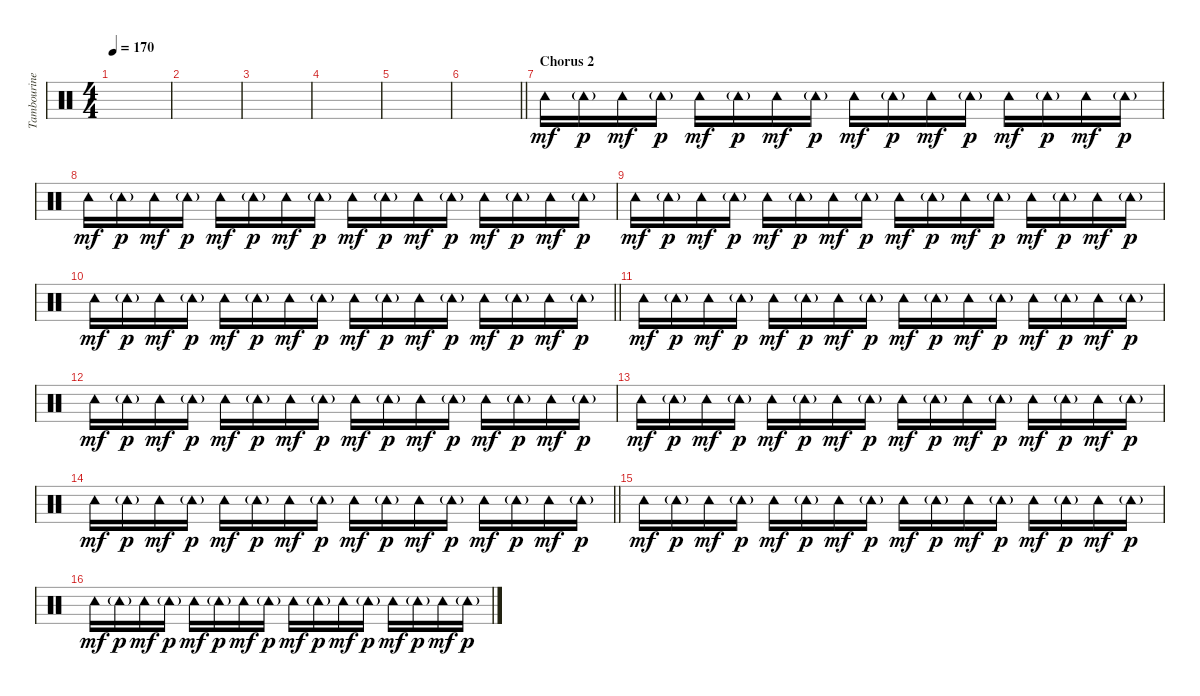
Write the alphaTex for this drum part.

\track ("Tambourine" "Tambourine") {instrument percussion}
\staff {score}
\articulation defaults
\ts (4 4)
\tempo 170
\clef neutral
\ks c
|
|
|
|
|
\barLineRight lightlight
|
\section ("" "Chorus 2")
"Tambourine (hit)".16{dy mf} "Tambourine (hit)"{g}.16{dy p} "Tambourine (hit)".16{dy mf} "Tambourine (hit)"{g}.16{dy p} "Tambourine (hit)".16{dy mf} "Tambourine (hit)"{g}.16{dy p} "Tambourine (hit)".16{dy mf} "Tambourine (hit)"{g}.16{dy p} "Tambourine (hit)".16{dy mf} "Tambourine (hit)"{g}.16{dy p} "Tambourine (hit)".16{dy mf} "Tambourine (hit)"{g}.16{dy p} "Tambourine (hit)".16{dy mf} "Tambourine (hit)"{g}.16{dy p} "Tambourine (hit)".16{dy mf} "Tambourine (hit)"{g}.16{dy p} |
"Tambourine (hit)".16{dy mf} "Tambourine (hit)"{g}.16{dy p} "Tambourine (hit)".16{dy mf} "Tambourine (hit)"{g}.16{dy p} "Tambourine (hit)".16{dy mf} "Tambourine (hit)"{g}.16{dy p} "Tambourine (hit)".16{dy mf} "Tambourine (hit)"{g}.16{dy p} "Tambourine (hit)".16{dy mf} "Tambourine (hit)"{g}.16{dy p} "Tambourine (hit)".16{dy mf} "Tambourine (hit)"{g}.16{dy p} "Tambourine (hit)".16{dy mf} "Tambourine (hit)"{g}.16{dy p} "Tambourine (hit)".16{dy mf} "Tambourine (hit)"{g}.16{dy p} |
"Tambourine (hit)".16{dy mf} "Tambourine (hit)"{g}.16{dy p} "Tambourine (hit)".16{dy mf} "Tambourine (hit)"{g}.16{dy p} "Tambourine (hit)".16{dy mf} "Tambourine (hit)"{g}.16{dy p} "Tambourine (hit)".16{dy mf} "Tambourine (hit)"{g}.16{dy p} "Tambourine (hit)".16{dy mf} "Tambourine (hit)"{g}.16{dy p} "Tambourine (hit)".16{dy mf} "Tambourine (hit)"{g}.16{dy p} "Tambourine (hit)".16{dy mf} "Tambourine (hit)"{g}.16{dy p} "Tambourine (hit)".16{dy mf} "Tambourine (hit)"{g}.16{dy p} |
\barLineRight lightlight "Tambourine (hit)".16{dy mf} "Tambourine (hit)"{g}.16{dy p} "Tambourine (hit)".16{dy mf} "Tambourine (hit)"{g}.16{dy p} "Tambourine (hit)".16{dy mf} "Tambourine (hit)"{g}.16{dy p} "Tambourine (hit)".16{dy mf} "Tambourine (hit)"{g}.16{dy p} "Tambourine (hit)".16{dy mf} "Tambourine (hit)"{g}.16{dy p} "Tambourine (hit)".16{dy mf} "Tambourine (hit)"{g}.16{dy p} "Tambourine (hit)".16{dy mf} "Tambourine (hit)"{g}.16{dy p} "Tambourine (hit)".16{dy mf} "Tambourine (hit)"{g}.16{dy p}
|
"Tambourine (hit)".16{dy mf} "Tambourine (hit)"{g}.16{dy p} "Tambourine (hit)".16{dy mf} "Tambourine (hit)"{g}.16{dy p} "Tambourine (hit)".16{dy mf} "Tambourine (hit)"{g}.16{dy p} "Tambourine (hit)".16{dy mf} "Tambourine (hit)"{g}.16{dy p} "Tambourine (hit)".16{dy mf} "Tambourine (hit)"{g}.16{dy p} "Tambourine (hit)".16{dy mf} "Tambourine (hit)"{g}.16{dy p} "Tambourine (hit)".16{dy mf} "Tambourine (hit)"{g}.16{dy p} "Tambourine (hit)".16{dy mf} "Tambourine (hit)"{g}.16{dy p} |
"Tambourine (hit)".16{dy mf} "Tambourine (hit)"{g}.16{dy p} "Tambourine (hit)".16{dy mf} "Tambourine (hit)"{g}.16{dy p} "Tambourine (hit)".16{dy mf} "Tambourine (hit)"{g}.16{dy p} "Tambourine (hit)".16{dy mf} "Tambourine (hit)"{g}.16{dy p} "Tambourine (hit)".16{dy mf} "Tambourine (hit)"{g}.16{dy p} "Tambourine (hit)".16{dy mf} "Tambourine (hit)"{g}.16{dy p} "Tambourine (hit)".16{dy mf} "Tambourine (hit)"{g}.16{dy p} "Tambourine (hit)".16{dy mf} "Tambourine (hit)"{g}.16{dy p} |
"Tambourine (hit)".16{dy mf} "Tambourine (hit)"{g}.16{dy p} "Tambourine (hit)".16{dy mf} "Tambourine (hit)"{g}.16{dy p} "Tambourine (hit)".16{dy mf} "Tambourine (hit)"{g}.16{dy p} "Tambourine (hit)".16{dy mf} "Tambourine (hit)"{g}.16{dy p} "Tambourine (hit)".16{dy mf} "Tambourine (hit)"{g}.16{dy p} "Tambourine (hit)".16{dy mf} "Tambourine (hit)"{g}.16{dy p} "Tambourine (hit)".16{dy mf} "Tambourine (hit)"{g}.16{dy p} "Tambourine (hit)".16{dy mf} "Tambourine (hit)"{g}.16{dy p} |
\barLineRight lightlight "Tambourine (hit)".16{dy mf} "Tambourine (hit)"{g}.16{dy p} "Tambourine (hit)".16{dy mf} "Tambourine (hit)"{g}.16{dy p} "Tambourine (hit)".16{dy mf} "Tambourine (hit)"{g}.16{dy p} "Tambourine (hit)".16{dy mf} "Tambourine (hit)"{g}.16{dy p} "Tambourine (hit)".16{dy mf} "Tambourine (hit)"{g}.16{dy p} "Tambourine (hit)".16{dy mf} "Tambourine (hit)"{g}.16{dy p} "Tambourine (hit)".16{dy mf} "Tambourine (hit)"{g}.16{dy p} "Tambourine (hit)".16{dy mf} "Tambourine (hit)"{g}.16{dy p}
|
"Tambourine (hit)".16{dy mf} "Tambourine (hit)"{g}.16{dy p} "Tambourine (hit)".16{dy mf} "Tambourine (hit)"{g}.16{dy p} "Tambourine (hit)".16{dy mf} "Tambourine (hit)"{g}.16{dy p} "Tambourine (hit)".16{dy mf} "Tambourine (hit)"{g}.16{dy p} "Tambourine (hit)".16{dy mf} "Tambourine (hit)"{g}.16{dy p} "Tambourine (hit)".16{dy mf} "Tambourine (hit)"{g}.16{dy p} "Tambourine (hit)".16{dy mf} "Tambourine (hit)"{g}.16{dy p} "Tambourine (hit)".16{dy mf} "Tambourine (hit)"{g}.16{dy p} |
"Tambourine (hit)".16{dy mf} "Tambourine (hit)"{g}.16{dy p} "Tambourine (hit)".16{dy mf} "Tambourine (hit)"{g}.16{dy p} "Tambourine (hit)".16{dy mf} "Tambourine (hit)"{g}.16{dy p} "Tambourine (hit)".16{dy mf} "Tambourine (hit)"{g}.16{dy p} "Tambourine (hit)".16{dy mf} "Tambourine (hit)"{g}.16{dy p} "Tambourine (hit)".16{dy mf} "Tambourine (hit)"{g}.16{dy p} "Tambourine (hit)".16{dy mf} "Tambourine (hit)"{g}.16{dy p} "Tambourine (hit)".16{dy mf} "Tambourine (hit)"{g}.16{dy p}
